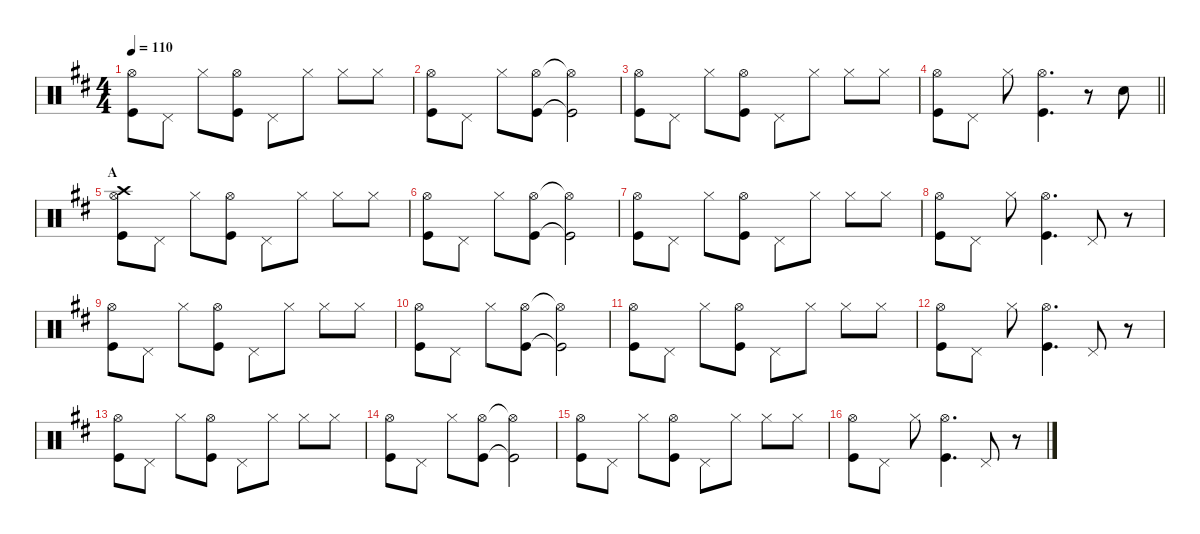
\defaultSystemsLayout 4
\hideDynamics
\bracketExtendMode nobrackets
\singleTrackTrackNamePolicy hidden
\multiTrackTrackNamePolicy hidden
\firstSystemTrackNameMode fullname
\firstSystemTrackNameOrientation horizontal
\otherSystemsTrackNameOrientation horizontal
\track ("Aaron Harris" "drm.") {defaultSystemsLayout 4 instrument percussion}
\staff {score}
\articulation defaults
\ts (4 4)
\tempo 110
\clef neutral
\ks bminor
("Hi-Hat (open)"{acc forcenatural} "Kick (hit)"{acc forcenatural}).8{dy f beam Down} "Pedal Hi-Hat (hit)"{acc forcenatural}.8{beam Down} "Hi-Hat (closed)"{acc forcenatural}.8{beam Down} ("Hi-Hat (open)"{acc forcenatural} "Kick (hit)"{acc forcenatural}).8{beam Down} "Pedal Hi-Hat (hit)"{acc forcenatural}.8{beam Down} "Hi-Hat (closed)"{acc forcenatural}.8{beam Down} "Hi-Hat (closed)"{acc forcenatural}.8{beam Down} "Hi-Hat (closed)"{acc forcenatural}.8{beam Down} |
("Hi-Hat (open)"{acc forcenatural} "Kick (hit)"{acc forcenatural}).8{beam Down} "Pedal Hi-Hat (hit)"{acc forcenatural}.8{beam Down} "Hi-Hat (closed)"{acc forcenatural}.8{beam Down} ("Hi-Hat (open)"{acc forcenatural} "Kick (hit)"{acc forcenatural}).8{beam Down} ("Hi-Hat (open)"{t acc forcenatural} "Kick (hit)"{t acc forcenatural}).2{beam Down} |
("Hi-Hat (open)"{acc forcenatural} "Kick (hit)"{acc forcenatural}).8{beam Down} "Pedal Hi-Hat (hit)"{acc forcenatural}.8{beam Down} "Hi-Hat (closed)"{acc forcenatural}.8{beam Down} ("Hi-Hat (open)"{acc forcenatural} "Kick (hit)"{acc forcenatural}).8{beam Down} "Pedal Hi-Hat (hit)"{acc forcenatural}.8{beam Down} "Hi-Hat (closed)"{acc forcenatural}.8{beam Down} "Hi-Hat (closed)"{acc forcenatural}.8{beam Down} "Hi-Hat (closed)"{acc forcenatural}.8{beam Down} |
\barLineRight lightlight
("Hi-Hat (open)"{acc forcenatural} "Kick (hit)"{acc forcenatural}).8{beam Down} "Pedal Hi-Hat (hit)"{acc forcenatural}.8{beam Down} "Hi-Hat (closed)"{acc forcenatural}.8{beam Down} ("Hi-Hat (open)"{acc forcenatural} "Kick (hit)"{acc forcenatural}).4{d beam Down} r.8{beam Down} "Snare (hit) 2"{acc forcenatural}.8{beam Down} |
\section ("" "A")
("Hi-Hat (open)"{acc forcenatural} "Crash high (hit)"{acc forcenatural} "Kick (hit)"{acc forcenatural}).8{beam Down} "Pedal Hi-Hat (hit)"{acc forcenatural}.8{beam Down} "Hi-Hat (closed)"{acc forcenatural}.8{beam Down} ("Hi-Hat (open)"{acc forcenatural} "Kick (hit)"{acc forcenatural}).8{beam Down} "Pedal Hi-Hat (hit)"{acc forcenatural}.8{beam Down} "Hi-Hat (closed)"{acc forcenatural}.8{beam Down} "Hi-Hat (closed)"{acc forcenatural}.8{beam Down} "Hi-Hat (closed)"{acc forcenatural}.8{beam Down} |
("Hi-Hat (open)"{acc forcenatural} "Kick (hit)"{acc forcenatural}).8{beam Down} "Pedal Hi-Hat (hit)"{acc forcenatural}.8{beam Down} "Hi-Hat (closed)"{acc forcenatural}.8{beam Down} ("Hi-Hat (open)"{acc forcenatural} "Kick (hit)"{acc forcenatural}).8{beam Down} ("Hi-Hat (open)"{t acc forcenatural} "Kick (hit)"{t acc forcenatural}).2{beam Down} |
("Hi-Hat (open)"{acc forcenatural} "Kick (hit)"{acc forcenatural}).8{beam Down} "Pedal Hi-Hat (hit)"{acc forcenatural}.8{beam Down} "Hi-Hat (closed)"{acc forcenatural}.8{beam Down} ("Hi-Hat (open)"{acc forcenatural} "Kick (hit)"{acc forcenatural}).8{beam Down} "Pedal Hi-Hat (hit)"{acc forcenatural}.8{beam Down} "Hi-Hat (closed)"{acc forcenatural}.8{beam Down} "Hi-Hat (closed)"{acc forcenatural}.8{beam Down} "Hi-Hat (closed)"{acc forcenatural}.8{beam Down} |
("Hi-Hat (open)"{acc forcenatural} "Kick (hit)"{acc forcenatural}).8{beam Down} "Pedal Hi-Hat (hit)"{acc forcenatural}.8{beam Down} "Hi-Hat (closed)"{acc forcenatural}.8{beam Down} ("Hi-Hat (open)"{acc forcenatural} "Kick (hit)"{acc forcenatural}).4{d beam Down} "Pedal Hi-Hat (hit)"{acc forcenatural}.8{beam Up} r.8{beam Up} |
("Hi-Hat (open)"{acc forcenatural} "Kick (hit)"{acc forcenatural}).8{beam Down} "Pedal Hi-Hat (hit)"{acc forcenatural}.8{beam Down} "Hi-Hat (closed)"{acc forcenatural}.8{beam Down} ("Hi-Hat (open)"{acc forcenatural} "Kick (hit)"{acc forcenatural}).8{beam Down} "Pedal Hi-Hat (hit)"{acc forcenatural}.8{beam Down} "Hi-Hat (closed)"{acc forcenatural}.8{beam Down} "Hi-Hat (closed)"{acc forcenatural}.8{beam Down} "Hi-Hat (closed)"{acc forcenatural}.8{beam Down} |
("Hi-Hat (open)"{acc forcenatural} "Kick (hit)"{acc forcenatural}).8{beam Down} "Pedal Hi-Hat (hit)"{acc forcenatural}.8{beam Down} "Hi-Hat (closed)"{acc forcenatural}.8{beam Down} ("Hi-Hat (open)"{acc forcenatural} "Kick (hit)"{acc forcenatural}).8{beam Down} ("Hi-Hat (open)"{t acc forcenatural} "Kick (hit)"{t acc forcenatural}).2{beam Down} |
("Hi-Hat (open)"{acc forcenatural} "Kick (hit)"{acc forcenatural}).8{beam Down} "Pedal Hi-Hat (hit)"{acc forcenatural}.8{beam Down} "Hi-Hat (closed)"{acc forcenatural}.8{beam Down} ("Hi-Hat (open)"{acc forcenatural} "Kick (hit)"{acc forcenatural}).8{beam Down} "Pedal Hi-Hat (hit)"{acc forcenatural}.8{beam Down} "Hi-Hat (closed)"{acc forcenatural}.8{beam Down} "Hi-Hat (closed)"{acc forcenatural}.8{beam Down} "Hi-Hat (closed)"{acc forcenatural}.8{beam Down} |
("Hi-Hat (open)"{acc forcenatural} "Kick (hit)"{acc forcenatural}).8{beam Down} "Pedal Hi-Hat (hit)"{acc forcenatural}.8{beam Down} "Hi-Hat (closed)"{acc forcenatural}.8{beam Down} ("Hi-Hat (open)"{acc forcenatural} "Kick (hit)"{acc forcenatural}).4{d beam Down} "Pedal Hi-Hat (hit)"{acc forcenatural}.8{beam Up} r.8{beam Up} |
("Hi-Hat (open)"{acc forcenatural} "Kick (hit)"{acc forcenatural}).8{beam Down} "Pedal Hi-Hat (hit)"{acc forcenatural}.8{beam Down} "Hi-Hat (closed)"{acc forcenatural}.8{beam Down} ("Hi-Hat (open)"{acc forcenatural} "Kick (hit)"{acc forcenatural}).8{beam Down} "Pedal Hi-Hat (hit)"{acc forcenatural}.8{beam Down} "Hi-Hat (closed)"{acc forcenatural}.8{beam Down} "Hi-Hat (closed)"{acc forcenatural}.8{beam Down} "Hi-Hat (closed)"{acc forcenatural}.8{beam Down} |
("Hi-Hat (open)"{acc forcenatural} "Kick (hit)"{acc forcenatural}).8{beam Down} "Pedal Hi-Hat (hit)"{acc forcenatural}.8{beam Down} "Hi-Hat (closed)"{acc forcenatural}.8{beam Down} ("Hi-Hat (open)"{acc forcenatural} "Kick (hit)"{acc forcenatural}).8{beam Down} ("Hi-Hat (open)"{t acc forcenatural} "Kick (hit)"{t acc forcenatural}).2{beam Down} |
("Hi-Hat (open)"{acc forcenatural} "Kick (hit)"{acc forcenatural}).8{beam Down} "Pedal Hi-Hat (hit)"{acc forcenatural}.8{beam Down} "Hi-Hat (closed)"{acc forcenatural}.8{beam Down} ("Hi-Hat (open)"{acc forcenatural} "Kick (hit)"{acc forcenatural}).8{beam Down} "Pedal Hi-Hat (hit)"{acc forcenatural}.8{beam Down} "Hi-Hat (closed)"{acc forcenatural}.8{beam Down} "Hi-Hat (closed)"{acc forcenatural}.8{beam Down} "Hi-Hat (closed)"{acc forcenatural}.8{beam Down} |
("Hi-Hat (open)"{acc forcenatural} "Kick (hit)"{acc forcenatural}).8{beam Down} "Pedal Hi-Hat (hit)"{acc forcenatural}.8{beam Down} "Hi-Hat (closed)"{acc forcenatural}.8{beam Down} ("Hi-Hat (open)"{acc forcenatural} "Kick (hit)"{acc forcenatural}).4{d beam Down} "Pedal Hi-Hat (hit)"{acc forcenatural}.8{beam Up} r.8{beam Up}
